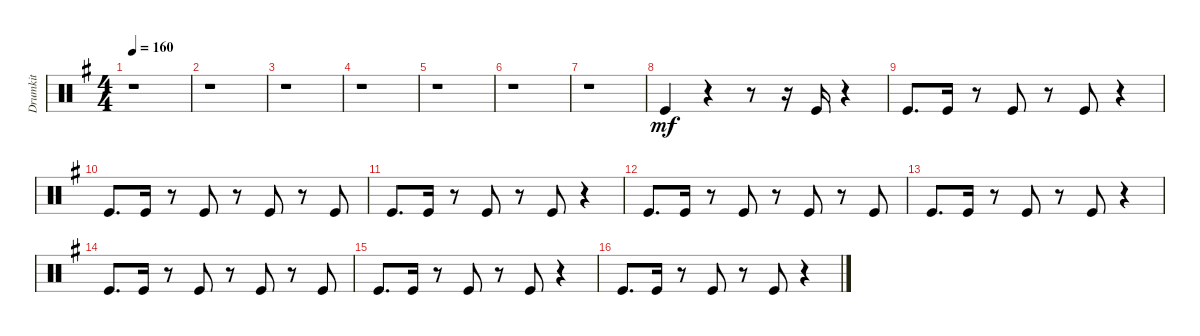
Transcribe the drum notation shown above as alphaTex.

\track ("Drumkit" "Drumkit") {instrument percussion}
\staff {score}
\articulation defaults
\ts (4 4)
\tempo 160
\clef neutral
\ks g
r.1{dy mf} |
r.1 |
r.1 |
r.1 |
r.1 |
r.1 |
r.1 |
"Kick (hit)".4 r.4 r.8 r.16 "Kick (hit)".16 r.4 |
"Kick (hit)".8{d} "Kick (hit)".16 r.8 "Kick (hit)".8 r.8 "Kick (hit)".8 r.4 |
"Kick (hit)".8{d} "Kick (hit)".16 r.8 "Kick (hit)".8 r.8 "Kick (hit)".8 r.8 "Kick (hit)".8 |
"Kick (hit)".8{d} "Kick (hit)".16 r.8 "Kick (hit)".8 r.8 "Kick (hit)".8 r.4 |
"Kick (hit)".8{d} "Kick (hit)".16 r.8 "Kick (hit)".8 r.8 "Kick (hit)".8 r.8 "Kick (hit)".8 |
"Kick (hit)".8{d} "Kick (hit)".16 r.8 "Kick (hit)".8 r.8 "Kick (hit)".8 r.4 |
"Kick (hit)".8{d} "Kick (hit)".16 r.8 "Kick (hit)".8 r.8 "Kick (hit)".8 r.8 "Kick (hit)".8 |
"Kick (hit)".8{d} "Kick (hit)".16 r.8 "Kick (hit)".8 r.8 "Kick (hit)".8 r.4 |
"Kick (hit)".8{d} "Kick (hit)".16 r.8 "Kick (hit)".8 r.8 "Kick (hit)".8 r.4
